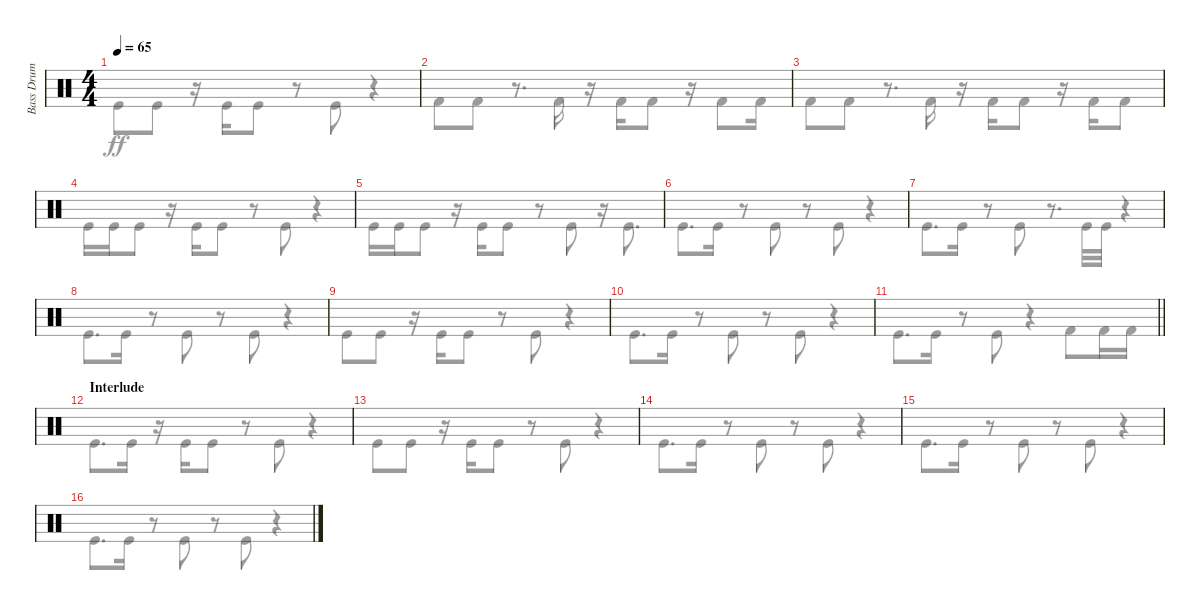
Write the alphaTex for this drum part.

\track ("Bass Drum" "Bass Drum") {instrument percussion}
\staff {score}
\articulation defaults
\voice
\ts (4 4)
\tempo 65
\clef neutral
\ks c
|
|
|
|
|
|
|
|
|
|
\barLineRight lightlight
|
\section ("" "Interlude")
|
|
|
|
\voice
\clef neutral
\ks c "Kick (hit)".8{dy ff} "Kick (hit)".8
r.16 "Kick (hit)".16 "Kick (hit)".8 r.8 "Kick (hit)".8 r.4 |
"Kick (hit) 2".8 "Kick (hit) 2".8 r.8{d} "Kick (hit) 2".16 r.16 "Kick (hit) 2".16 "Kick (hit) 2".8 r.16 "Kick (hit) 2".8 "Kick (hit) 2".16 |
"Kick (hit) 2".8 "Kick (hit) 2".8 r.8{d} "Kick (hit) 2".16 r.16 "Kick (hit) 2".16 "Kick (hit) 2".8 r.16 "Kick (hit) 2".16 "Kick (hit) 2".8 |
"Kick (hit)".16 "Kick (hit)".16 "Kick (hit)".8 r.16 "Kick (hit)".16 "Kick (hit)".8 r.8 "Kick (hit)".8 r.4 |
"Kick (hit)".16 "Kick (hit)".16 "Kick (hit)".8 r.16 "Kick (hit)".16 "Kick (hit)".8 r.8 "Kick (hit)".8 r.16 "Kick (hit)".8{d} |
"Kick (hit)".8{d} "Kick (hit)".16 r.8 "Kick (hit)".8 r.8 "Kick (hit)".8 r.4 |
"Kick (hit)".8{d} "Kick (hit)".16 r.8 "Kick (hit)".8 r.8{d} "Kick (hit)".32 "Kick (hit)".32 r.4 |
"Kick (hit)".8{d} "Kick (hit)".16 r.8 "Kick (hit)".8 r.8 "Kick (hit)".8 r.4 |
"Kick (hit)".8 "Kick (hit)".8 r.16 "Kick (hit)".16 "Kick (hit)".8 r.8 "Kick (hit)".8 r.4 |
"Kick (hit)".8{d} "Kick (hit)".16 r.8 "Kick (hit)".8 r.8 "Kick (hit)".8 r.4 |
\barLineRight lightlight "Kick (hit)".8{d} "Kick (hit)".16
r.8 "Kick (hit)".8 r.4 "Kick (hit) 2".8 "Kick (hit) 2".16 "Kick (hit) 2".16 |
"Kick (hit)".8{d} "Kick (hit)".16 r.16 "Kick (hit)".16 "Kick (hit)".8 r.8 "Kick (hit)".8 r.4 |
"Kick (hit)".8 "Kick (hit)".8 r.16 "Kick (hit)".16 "Kick (hit)".8 r.8 "Kick (hit)".8 r.4 |
"Kick (hit)".8{d} "Kick (hit)".16 r.8 "Kick (hit)".8 r.8 "Kick (hit)".8 r.4 |
"Kick (hit)".8{d} "Kick (hit)".16 r.8 "Kick (hit)".8 r.8 "Kick (hit)".8 r.4 |
"Kick (hit)".8{d} "Kick (hit)".16 r.8 "Kick (hit)".8 r.8 "Kick (hit)".8 r.4
